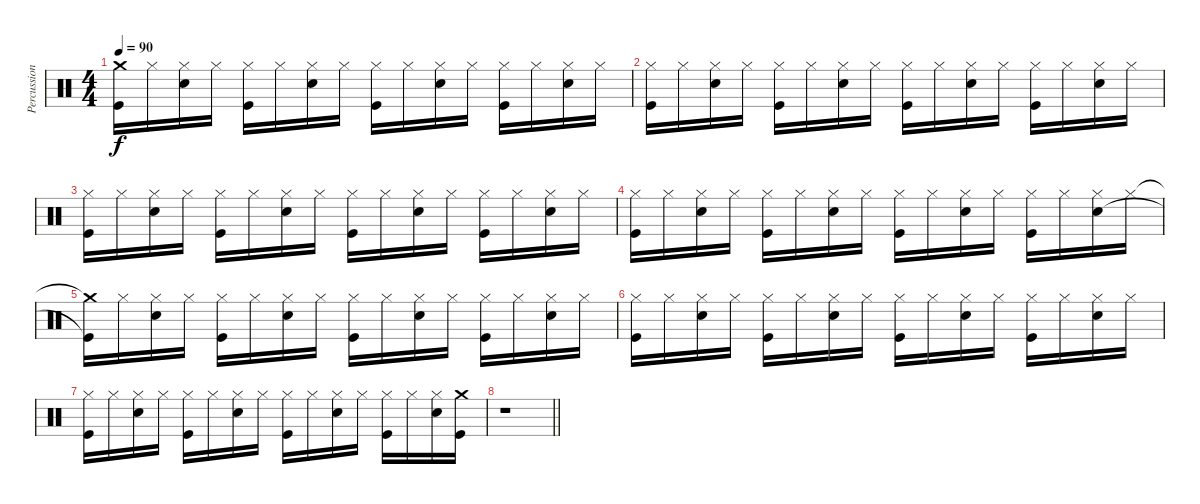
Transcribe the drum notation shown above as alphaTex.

\track ("Percussion" "Percussion") {instrument percussion}
\staff {score}
\articulation defaults
\ts (4 4)
\tempo 90
\clef neutral
\ks c
("Crash medium (hit)"{t} "Kick (hit)"{t}).16{dy f} "Hi-Hat (closed)".16 ("Hi-Hat (closed)" "Snare (hit) 2").16 "Hi-Hat (closed)".16 ("Hi-Hat (closed)" "Kick (hit)").16 "Hi-Hat (closed)".16 ("Hi-Hat (closed)" "Snare (hit) 2").16 "Hi-Hat (closed)".16 ("Hi-Hat (closed)" "Kick (hit)").16 "Hi-Hat (closed)".16 ("Hi-Hat (closed)" "Snare (hit) 2").16 "Hi-Hat (closed)".16 ("Hi-Hat (closed)" "Kick (hit)").16 "Hi-Hat (closed)".16 ("Hi-Hat (closed)" "Snare (hit) 2").16 "Hi-Hat (closed)".16 |
("Hi-Hat (closed)" "Kick (hit)").16 "Hi-Hat (closed)".16 ("Hi-Hat (closed)" "Snare (hit) 2").16 "Hi-Hat (closed)".16 ("Hi-Hat (closed)" "Kick (hit)").16 "Hi-Hat (closed)".16 ("Hi-Hat (closed)" "Snare (hit) 2").16 "Hi-Hat (closed)".16 ("Hi-Hat (closed)" "Kick (hit)").16 "Hi-Hat (closed)".16 ("Hi-Hat (closed)" "Snare (hit) 2").16 "Hi-Hat (closed)".16 ("Hi-Hat (closed)" "Kick (hit)").16 "Hi-Hat (closed)".16 ("Hi-Hat (closed)" "Snare (hit) 2").16 "Hi-Hat (closed)".16 |
("Hi-Hat (closed)" "Kick (hit)").16 "Hi-Hat (closed)".16 ("Hi-Hat (closed)" "Snare (hit) 2").16 "Hi-Hat (closed)".16 ("Hi-Hat (closed)" "Kick (hit)").16 "Hi-Hat (closed)".16 ("Hi-Hat (closed)" "Snare (hit) 2").16 "Hi-Hat (closed)".16 ("Hi-Hat (closed)" "Kick (hit)").16 "Hi-Hat (closed)".16 ("Hi-Hat (closed)" "Snare (hit) 2").16 "Hi-Hat (closed)".16 ("Hi-Hat (closed)" "Kick (hit)").16 "Hi-Hat (closed)".16 ("Hi-Hat (closed)" "Snare (hit) 2").16 "Hi-Hat (closed)".16 |
("Hi-Hat (closed)" "Kick (hit)").16 "Hi-Hat (closed)".16 ("Hi-Hat (closed)" "Snare (hit) 2").16 "Hi-Hat (closed)".16 ("Hi-Hat (closed)" "Kick (hit)").16 "Hi-Hat (closed)".16 ("Hi-Hat (closed)" "Snare (hit) 2").16 "Hi-Hat (closed)".16 ("Hi-Hat (closed)" "Kick (hit)").16 "Hi-Hat (closed)".16 ("Hi-Hat (closed)" "Snare (hit) 2").16 "Hi-Hat (closed)".16 ("Hi-Hat (closed)" "Kick (hit)").16 "Hi-Hat (closed)".16 ("Hi-Hat (closed)" "Snare (hit) 2").16 "Hi-Hat (closed)".16 |
("Crash medium (hit)"{t} "Kick (hit)"{t}).16 "Hi-Hat (closed)".16 ("Hi-Hat (closed)" "Snare (hit) 2").16 "Hi-Hat (closed)".16 ("Hi-Hat (closed)" "Kick (hit)").16 "Hi-Hat (closed)".16 ("Hi-Hat (closed)" "Snare (hit) 2").16 "Hi-Hat (closed)".16 ("Hi-Hat (closed)" "Kick (hit)").16 "Hi-Hat (closed)".16 ("Hi-Hat (closed)" "Snare (hit) 2").16 "Hi-Hat (closed)".16 ("Hi-Hat (closed)" "Kick (hit)").16 "Hi-Hat (closed)".16 ("Hi-Hat (closed)" "Snare (hit) 2").16 "Hi-Hat (closed)".16 |
("Hi-Hat (closed)" "Kick (hit)").16 "Hi-Hat (closed)".16 ("Hi-Hat (closed)" "Snare (hit) 2").16 "Hi-Hat (closed)".16 ("Hi-Hat (closed)" "Kick (hit)").16 "Hi-Hat (closed)".16 ("Hi-Hat (closed)" "Snare (hit) 2").16 "Hi-Hat (closed)".16 ("Hi-Hat (closed)" "Kick (hit)").16 "Hi-Hat (closed)".16 ("Hi-Hat (closed)" "Snare (hit) 2").16 "Hi-Hat (closed)".16 ("Hi-Hat (closed)" "Kick (hit)").16 "Hi-Hat (closed)".16 ("Hi-Hat (closed)" "Snare (hit) 2").16 "Hi-Hat (closed)".16 |
("Hi-Hat (closed)" "Kick (hit)").16 "Hi-Hat (closed)".16 ("Hi-Hat (closed)" "Snare (hit) 2").16 "Hi-Hat (closed)".16 ("Hi-Hat (closed)" "Kick (hit)").16 "Hi-Hat (closed)".16 ("Hi-Hat (closed)" "Snare (hit) 2").16 "Hi-Hat (closed)".16 ("Hi-Hat (closed)" "Kick (hit)").16 "Hi-Hat (closed)".16 ("Hi-Hat (closed)" "Snare (hit) 2").16 "Hi-Hat (closed)".16 ("Hi-Hat (closed)" "Kick (hit)").16 "Hi-Hat (closed)".16 ("Hi-Hat (closed)" "Snare (hit) 2").16 ("Crash medium (hit)" "Kick (hit)").16 |
\barLineRight lightlight
r.1
